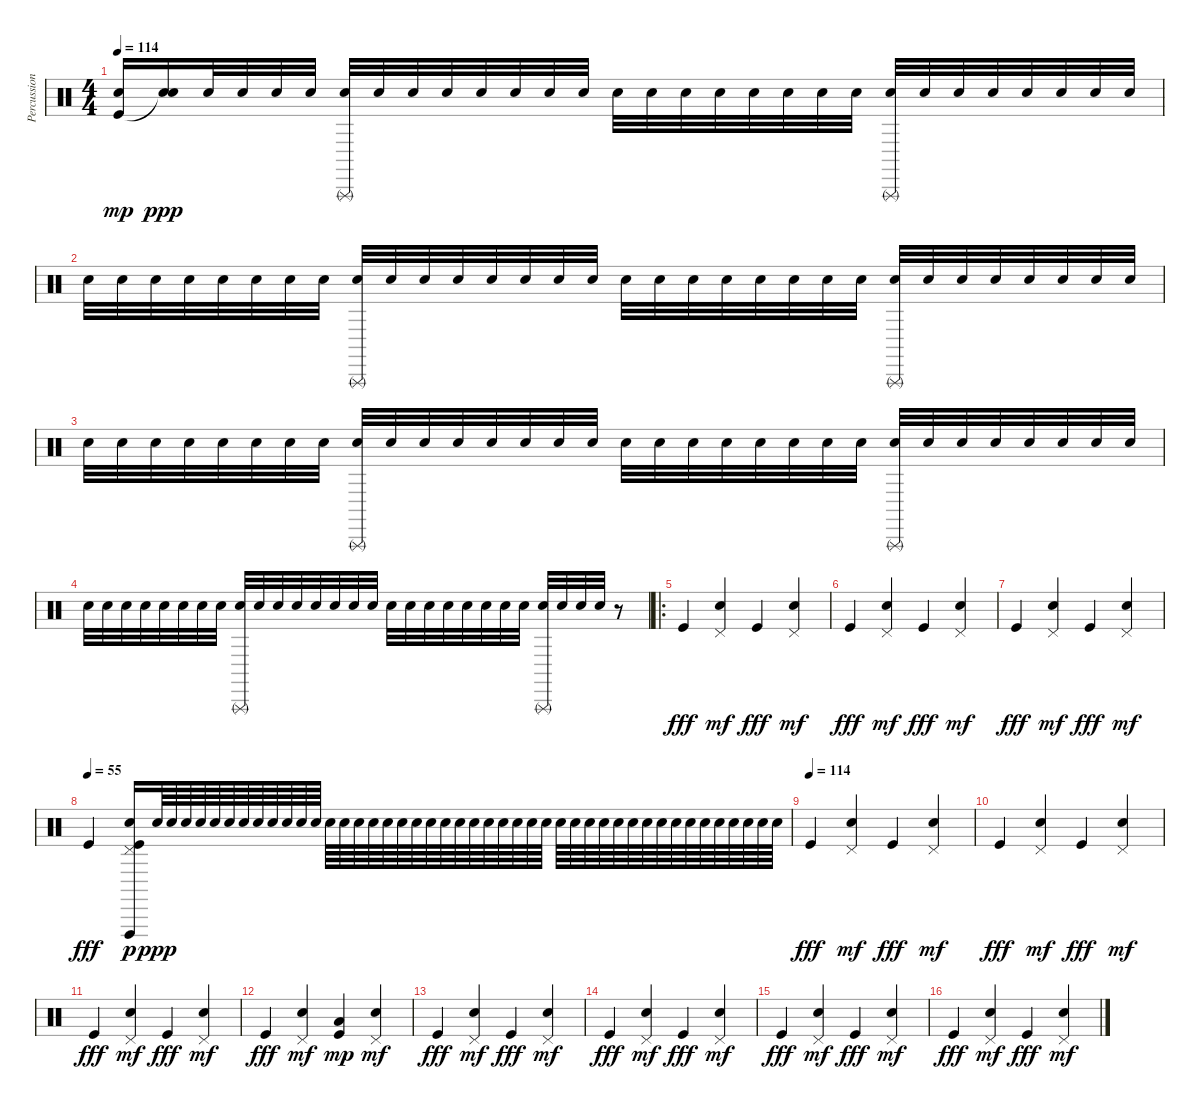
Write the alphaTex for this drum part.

\track ("Percussion" "Percussion") {instrument percussion}
\staff {score}
\articulation defaults
\ts (4 4)
\tempo 114
\clef neutral
\ks c
("Snare (hit) 2" "Kick (hit)").16{dy mp} ("Snare (hit) 2" "Snare (hit)"{t}).16{dy ppp} "Snare (hit) 2".32 "Snare (hit) 2".32 "Snare (hit) 2".32 "Snare (hit) 2".32 ("Triangle (rnute)" "Snare (hit) 2").32 "Snare (hit) 2".32 "Snare (hit) 2".32 "Snare (hit) 2".32 "Snare (hit) 2".32 "Snare (hit) 2".32 "Snare (hit) 2".32 "Snare (hit) 2".32 "Snare (hit) 2".32 "Snare (hit) 2".32 "Snare (hit) 2".32 "Snare (hit) 2".32 "Snare (hit) 2".32 "Snare (hit) 2".32 "Snare (hit) 2".32 "Snare (hit) 2".32 ("Triangle (rnute)" "Snare (hit) 2").32 "Snare (hit) 2".32 "Snare (hit) 2".32 "Snare (hit) 2".32 "Snare (hit) 2".32 "Snare (hit) 2".32 "Snare (hit) 2".32 "Snare (hit) 2".32 |
"Snare (hit) 2".32 "Snare (hit) 2".32 "Snare (hit) 2".32 "Snare (hit) 2".32 "Snare (hit) 2".32 "Snare (hit) 2".32 "Snare (hit) 2".32 "Snare (hit) 2".32 ("Triangle (rnute)" "Snare (hit) 2").32 "Snare (hit) 2".32 "Snare (hit) 2".32 "Snare (hit) 2".32 "Snare (hit) 2".32 "Snare (hit) 2".32 "Snare (hit) 2".32 "Snare (hit) 2".32 "Snare (hit) 2".32 "Snare (hit) 2".32 "Snare (hit) 2".32 "Snare (hit) 2".32 "Snare (hit) 2".32 "Snare (hit) 2".32 "Snare (hit) 2".32 "Snare (hit) 2".32 ("Triangle (rnute)" "Snare (hit) 2").32 "Snare (hit) 2".32 "Snare (hit) 2".32 "Snare (hit) 2".32 "Snare (hit) 2".32 "Snare (hit) 2".32 "Snare (hit) 2".32 "Snare (hit) 2".32 |
"Snare (hit) 2".32 "Snare (hit) 2".32 "Snare (hit) 2".32 "Snare (hit) 2".32 "Snare (hit) 2".32 "Snare (hit) 2".32 "Snare (hit) 2".32 "Snare (hit) 2".32 ("Triangle (rnute)" "Snare (hit) 2").32 "Snare (hit) 2".32 "Snare (hit) 2".32 "Snare (hit) 2".32 "Snare (hit) 2".32 "Snare (hit) 2".32 "Snare (hit) 2".32 "Snare (hit) 2".32 "Snare (hit) 2".32 "Snare (hit) 2".32 "Snare (hit) 2".32 "Snare (hit) 2".32 "Snare (hit) 2".32 "Snare (hit) 2".32 "Snare (hit) 2".32 "Snare (hit) 2".32 ("Triangle (rnute)" "Snare (hit) 2").32 "Snare (hit) 2".32 "Snare (hit) 2".32 "Snare (hit) 2".32 "Snare (hit) 2".32 "Snare (hit) 2".32 "Snare (hit) 2".32 "Snare (hit) 2".32 |
"Snare (hit) 2".32 "Snare (hit) 2".32 "Snare (hit) 2".32 "Snare (hit) 2".32 "Snare (hit) 2".32 "Snare (hit) 2".32 "Snare (hit) 2".32 "Snare (hit) 2".32 ("Triangle (rnute)" "Snare (hit) 2").32 "Snare (hit) 2".32 "Snare (hit) 2".32 "Snare (hit) 2".32 "Snare (hit) 2".32 "Snare (hit) 2".32 "Snare (hit) 2".32 "Snare (hit) 2".32 "Snare (hit) 2".32 "Snare (hit) 2".32 "Snare (hit) 2".32 "Snare (hit) 2".32 "Snare (hit) 2".32 "Snare (hit) 2".32 "Snare (hit) 2".32 "Snare (hit) 2".32 ("Triangle (rnute)" "Snare (hit) 2").32 "Snare (hit) 2".32 "Snare (hit) 2".32 "Snare (hit) 2".32 r.8 |
\ro "Kick (hit)".4{dy fff}
("Pedal Hi-Hat (hit)" "Electric Snare (hit)").4{dy mf} "Kick (hit)".4{dy fff} ("Pedal Hi-Hat (hit)" "Electric Snare (hit)").4{dy mf} |
"Kick (hit)".4{dy fff} ("Pedal Hi-Hat (hit)" "Electric Snare (hit)").4{dy mf} "Kick (hit)".4{dy fff} ("Pedal Hi-Hat (hit)" "Electric Snare (hit)").4{dy mf} |
"Kick (hit)".4{dy fff} ("Pedal Hi-Hat (hit)" "Electric Snare (hit)").4{dy mf} "Kick (hit)".4{dy fff} ("Pedal Hi-Hat (hit)" "Electric Snare (hit)").4{dy mf} |
\tempo (55)
"Kick (hit)".4{dy fff} ("Vibraslap (hit)" "Pedal Hi-Hat (hit)" "Snare (hit) 2" "Kick (hit)").16{dy p} "Snare (hit) 2".64{dy ppp} "Snare (hit) 2".64 "Snare (hit) 2".64 "Snare (hit) 2".64 "Snare (hit) 2".64 "Snare (hit) 2".64 "Snare (hit) 2".64 "Snare (hit) 2".64 "Snare (hit) 2".64 "Snare (hit) 2".64 "Snare (hit) 2".64 "Snare (hit) 2".64 "Snare (hit) 2".64 "Snare (hit) 2".64 "Snare (hit) 2".64 "Snare (hit) 2".64 "Snare (hit) 2".64 "Snare (hit) 2".64 "Snare (hit) 2".64 "Snare (hit) 2".64 "Snare (hit) 2".64 "Snare (hit) 2".64 "Snare (hit) 2".64 "Snare (hit) 2".64 "Snare (hit) 2".64 "Snare (hit) 2".64 "Snare (hit) 2".64 "Snare (hit) 2".64 "Snare (hit) 2".64 "Snare (hit) 2".64 "Snare (hit) 2".64 "Snare (hit) 2".64 "Snare (hit) 2".64 "Snare (hit) 2".64 "Snare (hit) 2".64 "Snare (hit) 2".64 "Snare (hit) 2".64 "Snare (hit) 2".64 "Snare (hit) 2".64 "Snare (hit) 2".64 "Snare (hit) 2".64 "Snare (hit) 2".64 "Snare (hit) 2".64 "Snare (hit) 2".64 |
\tempo (114)
"Kick (hit)".4{dy fff} ("Pedal Hi-Hat (hit)" "Electric Snare (hit)").4{dy mf} "Kick (hit)".4{dy fff} ("Pedal Hi-Hat (hit)" "Electric Snare (hit)").4{dy mf} |
"Kick (hit)".4{dy fff} ("Pedal Hi-Hat (hit)" "Electric Snare (hit)").4{dy mf} "Kick (hit)".4{dy fff} ("Pedal Hi-Hat (hit)" "Electric Snare (hit)").4{dy mf} |
"Kick (hit)".4{dy fff} ("Pedal Hi-Hat (hit)" "Electric Snare (hit)").4{dy mf} "Kick (hit)".4{dy fff} ("Pedal Hi-Hat (hit)" "Electric Snare (hit)").4{dy mf} |
"Kick (hit)".4{dy fff} ("Pedal Hi-Hat (hit)" "Electric Snare (hit)").4{dy mf} ("Kick (hit)" "Low Tom (hit)").4{dy mp} ("Pedal Hi-Hat (hit)" "Electric Snare (hit)").4{dy mf} |
"Kick (hit)".4{dy fff} ("Pedal Hi-Hat (hit)" "Electric Snare (hit)").4{dy mf} "Kick (hit)".4{dy fff} ("Pedal Hi-Hat (hit)" "Electric Snare (hit)").4{dy mf} |
"Kick (hit)".4{dy fff} ("Pedal Hi-Hat (hit)" "Electric Snare (hit)").4{dy mf} "Kick (hit)".4{dy fff} ("Pedal Hi-Hat (hit)" "Electric Snare (hit)").4{dy mf} |
"Kick (hit)".4{dy fff} ("Pedal Hi-Hat (hit)" "Electric Snare (hit)").4{dy mf} "Kick (hit)".4{dy fff} ("Pedal Hi-Hat (hit)" "Electric Snare (hit)").4{dy mf} |
"Kick (hit)".4{dy fff} ("Pedal Hi-Hat (hit)" "Electric Snare (hit)").4{dy mf} "Kick (hit)".4{dy fff} ("Pedal Hi-Hat (hit)" "Electric Snare (hit)").4{dy mf}
